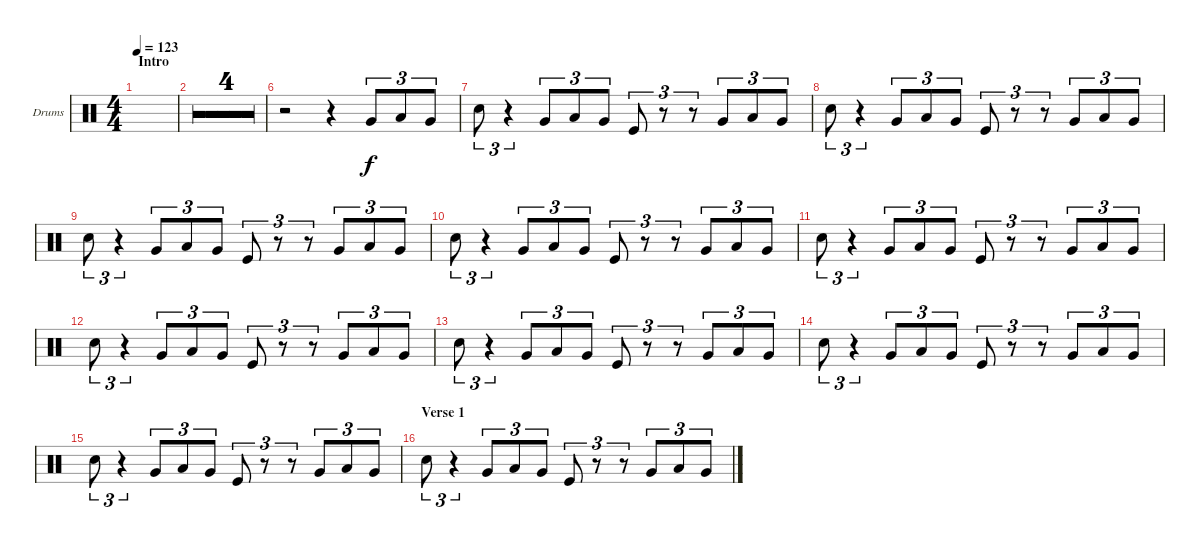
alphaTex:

\defaultSystemsLayout 4
\bracketExtendMode groupsimilarinstruments
\firstSystemTrackNameOrientation horizontal
\otherSystemsTrackNameOrientation horizontal
\track ("Drumkit" "Drums") {multiBarRest instrument percussion}
\staff {score}
\articulation defaults
\ts (4 4)
\section ("" "Intro")
\tempo 123
\clef neutral
\ks c
|
|
|
|
|
r.2 r.4 "Very Low Tom (hit)".8{tu (3 2)} "Low Tom (hit)".8{tu (3 2)} "Very Low Tom (hit)".8{tu (3 2)} |
"Snare (hit) 2".8{tu (3 2)} r.4{tu (3 2)} "Very Low Tom (hit)".8{tu (3 2)} "Low Tom (hit)".8{tu (3 2)} "Very Low Tom (hit)".8{tu (3 2)} "Kick (hit)".8{tu (3 2)} r.8{tu (3 2)} r.8{tu (3 2)} "Very Low Tom (hit)".8{tu (3 2)} "Low Tom (hit)".8{tu (3 2)} "Very Low Tom (hit)".8{tu (3 2)} |
"Snare (hit) 2".8{tu (3 2)} r.4{tu (3 2)} "Very Low Tom (hit)".8{tu (3 2)} "Low Tom (hit)".8{tu (3 2)} "Very Low Tom (hit)".8{tu (3 2)} "Kick (hit)".8{tu (3 2)} r.8{tu (3 2)} r.8{tu (3 2)} "Very Low Tom (hit)".8{tu (3 2)} "Low Tom (hit)".8{tu (3 2)} "Very Low Tom (hit)".8{tu (3 2)} |
"Snare (hit) 2".8{tu (3 2)} r.4{tu (3 2)} "Very Low Tom (hit)".8{tu (3 2)} "Low Tom (hit)".8{tu (3 2)} "Very Low Tom (hit)".8{tu (3 2)} "Kick (hit)".8{tu (3 2)} r.8{tu (3 2)} r.8{tu (3 2)} "Very Low Tom (hit)".8{tu (3 2)} "Low Tom (hit)".8{tu (3 2)} "Very Low Tom (hit)".8{tu (3 2)} |
"Snare (hit) 2".8{tu (3 2)} r.4{tu (3 2)} "Very Low Tom (hit)".8{tu (3 2)} "Low Tom (hit)".8{tu (3 2)} "Very Low Tom (hit)".8{tu (3 2)} "Kick (hit)".8{tu (3 2)} r.8{tu (3 2)} r.8{tu (3 2)} "Very Low Tom (hit)".8{tu (3 2)} "Low Tom (hit)".8{tu (3 2)} "Very Low Tom (hit)".8{tu (3 2)} |
"Snare (hit) 2".8{tu (3 2)} r.4{tu (3 2)} "Very Low Tom (hit)".8{tu (3 2)} "Low Tom (hit)".8{tu (3 2)} "Very Low Tom (hit)".8{tu (3 2)} "Kick (hit)".8{tu (3 2)} r.8{tu (3 2)} r.8{tu (3 2)} "Very Low Tom (hit)".8{tu (3 2)} "Low Tom (hit)".8{tu (3 2)} "Very Low Tom (hit)".8{tu (3 2)} |
"Snare (hit) 2".8{tu (3 2)} r.4{tu (3 2)} "Very Low Tom (hit)".8{tu (3 2)} "Low Tom (hit)".8{tu (3 2)} "Very Low Tom (hit)".8{tu (3 2)} "Kick (hit)".8{tu (3 2)} r.8{tu (3 2)} r.8{tu (3 2)} "Very Low Tom (hit)".8{tu (3 2)} "Low Tom (hit)".8{tu (3 2)} "Very Low Tom (hit)".8{tu (3 2)} |
"Snare (hit) 2".8{tu (3 2)} r.4{tu (3 2)} "Very Low Tom (hit)".8{tu (3 2)} "Low Tom (hit)".8{tu (3 2)} "Very Low Tom (hit)".8{tu (3 2)} "Kick (hit)".8{tu (3 2)} r.8{tu (3 2)} r.8{tu (3 2)} "Very Low Tom (hit)".8{tu (3 2)} "Low Tom (hit)".8{tu (3 2)} "Very Low Tom (hit)".8{tu (3 2)} |
"Snare (hit) 2".8{tu (3 2)} r.4{tu (3 2)} "Very Low Tom (hit)".8{tu (3 2)} "Low Tom (hit)".8{tu (3 2)} "Very Low Tom (hit)".8{tu (3 2)} "Kick (hit)".8{tu (3 2)} r.8{tu (3 2)} r.8{tu (3 2)} "Very Low Tom (hit)".8{tu (3 2)} "Low Tom (hit)".8{tu (3 2)} "Very Low Tom (hit)".8{tu (3 2)} |
"Snare (hit) 2".8{tu (3 2)} r.4{tu (3 2)} "Very Low Tom (hit)".8{tu (3 2)} "Low Tom (hit)".8{tu (3 2)} "Very Low Tom (hit)".8{tu (3 2)} "Kick (hit)".8{tu (3 2)} r.8{tu (3 2)} r.8{tu (3 2)} "Very Low Tom (hit)".8{tu (3 2)} "Low Tom (hit)".8{tu (3 2)} "Very Low Tom (hit)".8{tu (3 2)} |
\section ("" "Verse 1")
"Snare (hit) 2".8{tu (3 2)} r.4{tu (3 2)} "Very Low Tom (hit)".8{tu (3 2)} "Low Tom (hit)".8{tu (3 2)} "Very Low Tom (hit)".8{tu (3 2)} "Kick (hit)".8{tu (3 2)} r.8{tu (3 2)} r.8{tu (3 2)} "Very Low Tom (hit)".8{tu (3 2)} "Low Tom (hit)".8{tu (3 2)} "Very Low Tom (hit)".8{tu (3 2)}
